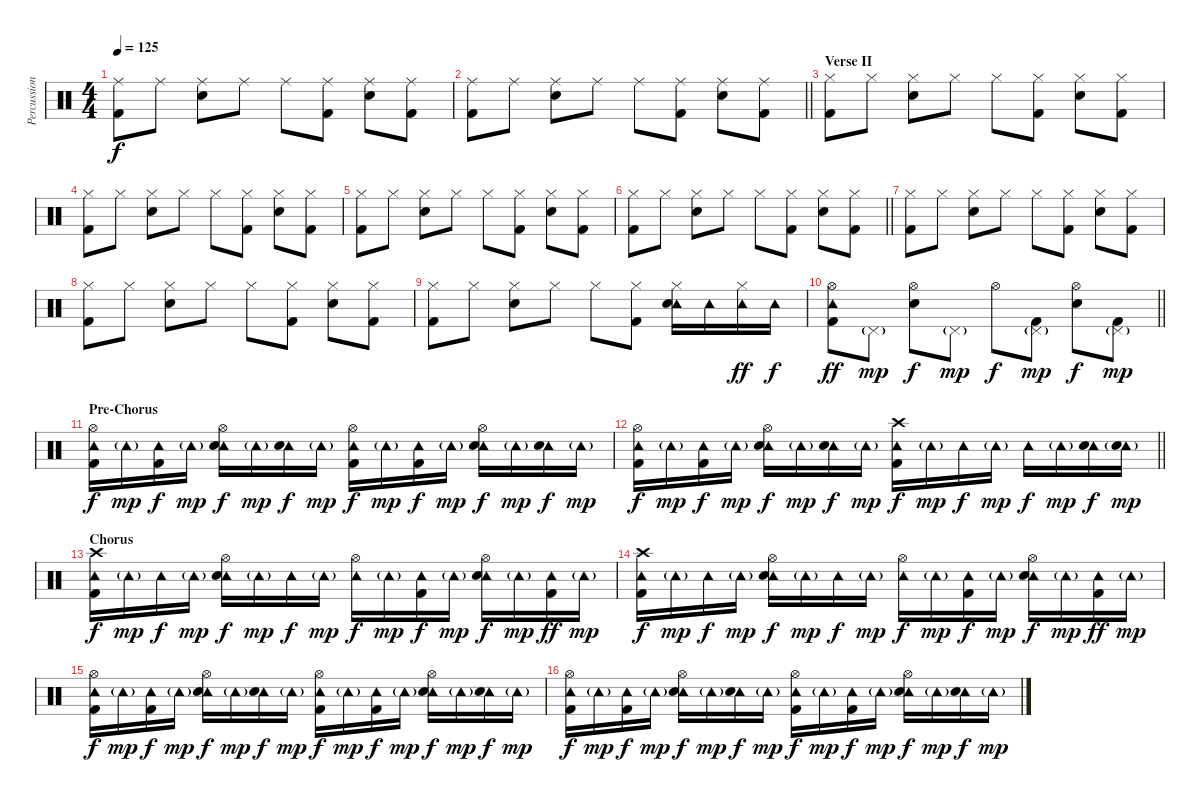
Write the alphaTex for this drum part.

\track ("Percussion" "Percussion") {instrument percussion}
\staff {score}
\articulation defaults
\ts (4 4)
\tempo 125
\clef neutral
\ks c
("Ride (middle)" "Kick (hit) 2").8{dy f} "Ride (middle)".8 ("Ride (middle)" "Electric Snare (hit)").8 "Ride (middle)".8 "Ride (middle)".8 ("Ride (middle)" "Kick (hit) 2").8 ("Ride (middle)" "Electric Snare (hit)").8 ("Ride (middle)" "Kick (hit) 2").8 |
\barLineRight lightlight
("Ride (middle)" "Kick (hit) 2").8 "Ride (middle)".8 ("Ride (middle)" "Electric Snare (hit)").8 "Ride (middle)".8 "Ride (middle)".8 ("Ride (middle)" "Kick (hit) 2").8 ("Ride (middle)" "Electric Snare (hit)").8 ("Ride (middle)" "Kick (hit) 2").8 |
\section ("" "Verse II")
("Hi-Hat (closed)" "Kick (hit) 2").8 "Hi-Hat (closed)".8 ("Hi-Hat (closed)" "Electric Snare (hit)").8 "Hi-Hat (closed)".8 "Hi-Hat (closed)".8 ("Hi-Hat (closed)" "Kick (hit) 2").8 ("Hi-Hat (closed)" "Electric Snare (hit)").8 ("Hi-Hat (closed)" "Kick (hit) 2").8 |
("Hi-Hat (closed)" "Kick (hit) 2").8 "Hi-Hat (closed)".8 ("Hi-Hat (closed)" "Electric Snare (hit)").8 "Hi-Hat (closed)".8 "Hi-Hat (closed)".8 ("Hi-Hat (closed)" "Kick (hit) 2").8 ("Hi-Hat (closed)" "Electric Snare (hit)").8 ("Hi-Hat (closed)" "Kick (hit) 2").8 |
("Hi-Hat (closed)" "Kick (hit) 2").8 "Hi-Hat (closed)".8 ("Hi-Hat (closed)" "Electric Snare (hit)").8 "Hi-Hat (closed)".8 "Hi-Hat (closed)".8 ("Hi-Hat (closed)" "Kick (hit) 2").8 ("Hi-Hat (closed)" "Electric Snare (hit)").8 ("Hi-Hat (closed)" "Kick (hit) 2").8 |
\barLineRight lightlight
("Hi-Hat (closed)" "Kick (hit) 2").8 "Hi-Hat (closed)".8 ("Hi-Hat (closed)" "Electric Snare (hit)").8 "Hi-Hat (closed)".8 "Hi-Hat (closed)".8 ("Hi-Hat (closed)" "Kick (hit) 2").8 ("Hi-Hat (closed)" "Electric Snare (hit)").8 ("Hi-Hat (closed)" "Kick (hit) 2").8 |
("Hi-Hat (closed)" "Kick (hit) 2").8 "Hi-Hat (closed)".8 ("Hi-Hat (closed)" "Electric Snare (hit)").8 "Hi-Hat (closed)".8 "Hi-Hat (closed)".8 ("Hi-Hat (closed)" "Kick (hit) 2").8 ("Hi-Hat (closed)" "Electric Snare (hit)").8 ("Hi-Hat (closed)" "Kick (hit) 2").8 |
("Hi-Hat (closed)" "Kick (hit) 2").8 "Hi-Hat (closed)".8 ("Hi-Hat (closed)" "Electric Snare (hit)").8 "Hi-Hat (closed)".8 "Hi-Hat (closed)".8 ("Hi-Hat (closed)" "Kick (hit) 2").8 ("Hi-Hat (closed)" "Electric Snare (hit)").8 ("Hi-Hat (closed)" "Kick (hit) 2").8 |
("Hi-Hat (closed)" "Kick (hit) 2").8 "Hi-Hat (closed)".8 ("Hi-Hat (closed)" "Electric Snare (hit)").8 "Hi-Hat (closed)".8 "Hi-Hat (closed)".8 ("Hi-Hat (closed)" "Kick (hit) 2").8 ("Tambourine (hit)" "Hi-Hat (closed)" "Electric Snare (hit)").16 "Tambourine (hit)".16 ("Tambourine (hit)" "Hi-Hat (closed)").16{dy ff} "Tambourine (hit)".16{dy f} |
\barLineRight lightlight
("Tambourine (hit)" "Hi-Hat (open)" "Kick (hit) 2").8{dy ff} "Pedal Hi-Hat (hit)"{g}.8{dy mp} ("Hi-Hat (open)" "Electric Snare (hit)").8{dy f} "Pedal Hi-Hat (hit)"{g}.8{dy mp} "Hi-Hat (open)".8{dy f} ("Pedal Hi-Hat (hit)"{g} "Kick (hit) 2").8{dy mp} ("Hi-Hat (open)" "Electric Snare (hit)").8{dy f} ("Pedal Hi-Hat (hit)"{g} "Kick (hit) 2").8{dy mp} |
\section ("" "Pre-Chorus")
("Tambourine (hit)" "Hi-Hat (open)" "Kick (hit) 2").16{dy f} "Tambourine (hit)"{g}.16{dy mp} ("Tambourine (hit)" "Kick (hit) 2").16{dy f} "Tambourine (hit)"{g}.16{dy mp} ("Tambourine (hit)" "Hi-Hat (open)" "Electric Snare (hit)").16{dy f} "Tambourine (hit)"{g}.16{dy mp} ("Tambourine (hit)" "Electric Snare (hit)").16{dy f} "Tambourine (hit)"{g}.16{dy mp} ("Tambourine (hit)" "Hi-Hat (open)" "Kick (hit) 2").16{dy f} "Tambourine (hit)"{g}.16{dy mp} ("Tambourine (hit)" "Kick (hit) 2").16{dy f} "Tambourine (hit)"{g}.16{dy mp} ("Tambourine (hit)" "Hi-Hat (open)" "Electric Snare (hit)").16{dy f} "Tambourine (hit)"{g}.16{dy mp} ("Tambourine (hit)" "Electric Snare (hit)").16{dy f} "Tambourine (hit)"{g}.16{dy mp} |
\barLineRight lightlight
("Tambourine (hit)" "Hi-Hat (open)" "Kick (hit) 2").16{dy f} "Tambourine (hit)"{g}.16{dy mp} ("Tambourine (hit)" "Kick (hit) 2").16{dy f} "Tambourine (hit)"{g}.16{dy mp} ("Tambourine (hit)" "Hi-Hat (open)" "Electric Snare (hit)").16{dy f} "Tambourine (hit)"{g}.16{dy mp} ("Tambourine (hit)" "Electric Snare (hit)").16{dy f} "Tambourine (hit)"{g}.16{dy mp} ("Tambourine (hit)" "Crash high (hit)" "Kick (hit) 2").16{dy f} "Tambourine (hit)"{g}.16{dy mp} "Tambourine (hit)".16{dy f} "Tambourine (hit)"{g}.16{dy mp} "Tambourine (hit)".16{dy f} "Tambourine (hit)"{g}.16{dy mp} ("Tambourine (hit)" "Electric Snare (hit)").16{dy f} ("Tambourine (hit)"{g} "Electric Snare (hit)").16{dy mp} |
\section ("" "Chorus")
("Tambourine (hit)" "Crash high (hit)" "Kick (hit) 2").16{dy f} "Tambourine (hit)"{g}.16{dy mp} "Tambourine (hit)".16{dy f} "Tambourine (hit)"{g}.16{dy mp} ("Tambourine (hit)" "Hi-Hat (open)" "Electric Snare (hit)").16{dy f} "Tambourine (hit)"{g}.16{dy mp} "Tambourine (hit)".16{dy f} "Tambourine (hit)"{g}.16{dy mp} ("Tambourine (hit)" "Hi-Hat (open)").16{dy f} "Tambourine (hit)"{g}.16{dy mp} ("Tambourine (hit)" "Kick (hit) 2").16{dy f} "Tambourine (hit)"{g}.16{dy mp} ("Tambourine (hit)" "Hi-Hat (open)" "Electric Snare (hit)").16{dy f} "Tambourine (hit)"{g}.16{dy mp} ("Tambourine (hit)" "Kick (hit) 2").16{dy ff} "Tambourine (hit)"{g}.16{dy mp} |
("Tambourine (hit)" "Crash high (hit)" "Kick (hit) 2").16{dy f} "Tambourine (hit)"{g}.16{dy mp} "Tambourine (hit)".16{dy f} "Tambourine (hit)"{g}.16{dy mp} ("Tambourine (hit)" "Hi-Hat (open)" "Electric Snare (hit)").16{dy f} "Tambourine (hit)"{g}.16{dy mp} "Tambourine (hit)".16{dy f} "Tambourine (hit)"{g}.16{dy mp} ("Tambourine (hit)" "Hi-Hat (open)").16{dy f} "Tambourine (hit)"{g}.16{dy mp} ("Tambourine (hit)" "Kick (hit) 2").16{dy f} "Tambourine (hit)"{g}.16{dy mp} ("Tambourine (hit)" "Hi-Hat (open)" "Electric Snare (hit)").16{dy f} "Tambourine (hit)"{g}.16{dy mp} ("Tambourine (hit)" "Kick (hit) 2").16{dy ff} "Tambourine (hit)"{g}.16{dy mp} |
("Tambourine (hit)" "Hi-Hat (open)" "Kick (hit) 2").16{dy f} "Tambourine (hit)"{g}.16{dy mp} ("Tambourine (hit)" "Kick (hit) 2").16{dy f} "Tambourine (hit)"{g}.16{dy mp} ("Tambourine (hit)" "Hi-Hat (open)" "Electric Snare (hit)").16{dy f} "Tambourine (hit)"{g}.16{dy mp} ("Tambourine (hit)" "Electric Snare (hit)").16{dy f} "Tambourine (hit)"{g}.16{dy mp} ("Tambourine (hit)" "Hi-Hat (open)" "Kick (hit) 2").16{dy f} "Tambourine (hit)"{g}.16{dy mp} ("Tambourine (hit)" "Kick (hit) 2").16{dy f} "Tambourine (hit)"{g}.16{dy mp} ("Tambourine (hit)" "Hi-Hat (open)" "Electric Snare (hit)").16{dy f} "Tambourine (hit)"{g}.16{dy mp} ("Tambourine (hit)" "Electric Snare (hit)").16{dy f} "Tambourine (hit)"{g}.16{dy mp} |
("Tambourine (hit)" "Hi-Hat (open)" "Kick (hit) 2").16{dy f} "Tambourine (hit)"{g}.16{dy mp} ("Tambourine (hit)" "Kick (hit) 2").16{dy f} "Tambourine (hit)"{g}.16{dy mp} ("Tambourine (hit)" "Hi-Hat (open)" "Electric Snare (hit)").16{dy f} "Tambourine (hit)"{g}.16{dy mp} ("Tambourine (hit)" "Electric Snare (hit)").16{dy f} "Tambourine (hit)"{g}.16{dy mp} ("Tambourine (hit)" "Hi-Hat (open)" "Kick (hit) 2").16{dy f} "Tambourine (hit)"{g}.16{dy mp} ("Tambourine (hit)" "Kick (hit) 2").16{dy f} "Tambourine (hit)"{g}.16{dy mp} ("Tambourine (hit)" "Hi-Hat (open)" "Electric Snare (hit)").16{dy f} "Tambourine (hit)"{g}.16{dy mp} ("Tambourine (hit)" "Electric Snare (hit)").16{dy f} "Tambourine (hit)"{g}.16{dy mp}
